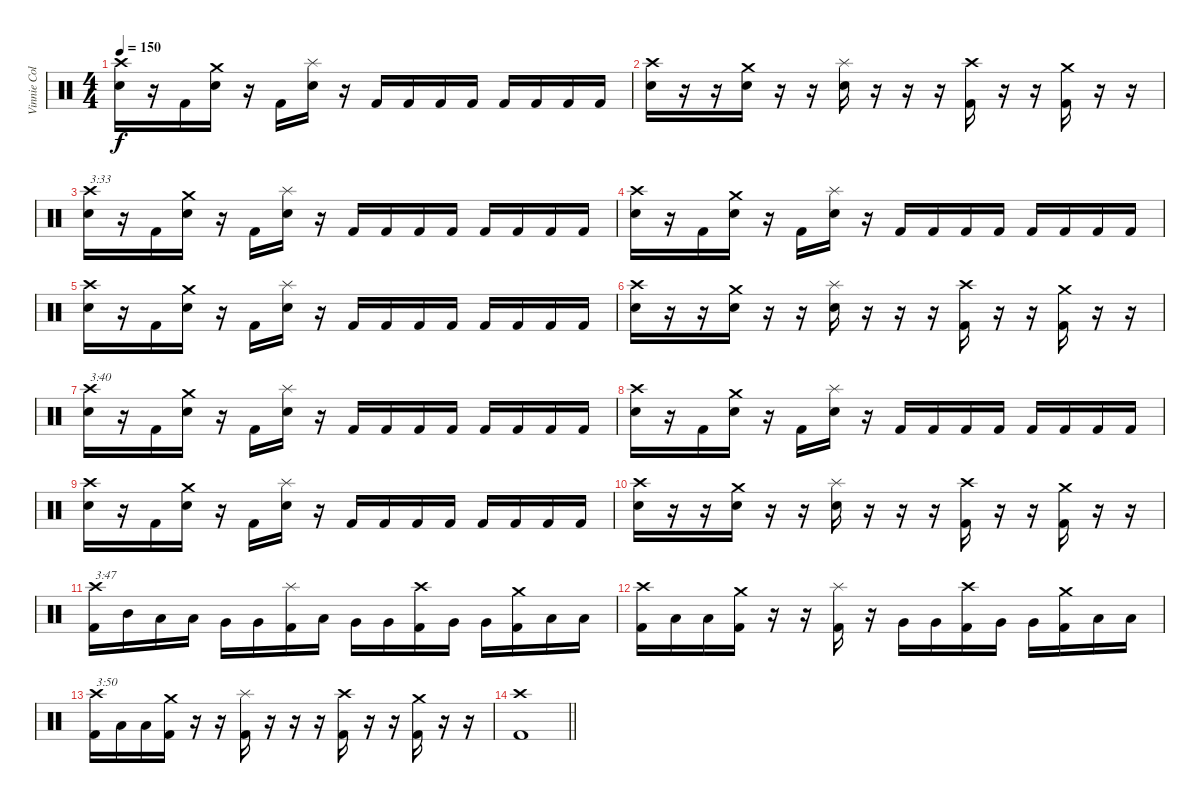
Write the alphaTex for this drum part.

\track ("Vinnie Colaiuta" "Vinnie Col") {instrument percussion}
\staff {score}
\articulation defaults
\ts (4 4)
\tempo 150
\clef neutral
\ks c
("Crash high (hit)" "Snare (hit) 2").16{dy f} r.16 "Kick (hit) 2".16 ("Crash medium (hit)" "Snare (hit) 2").16 r.16 "Kick (hit) 2".16 ("Splash (hit)" "Snare (hit) 2").16 r.16 "Kick (hit) 2".16 "Kick (hit) 2".16 "Kick (hit) 2".16 "Kick (hit) 2".16 "Kick (hit) 2".16 "Kick (hit) 2".16 "Kick (hit) 2".16 "Kick (hit) 2".16 |
("Crash high (hit)" "Snare (hit) 2").16 r.16 r.16 ("Crash medium (hit)" "Snare (hit) 2").16 r.16 r.16 ("Splash (hit)" "Snare (hit) 2").16 r.16 r.16 r.16 ("Crash high (hit)" "Kick (hit) 2").16 r.16 r.16 ("Crash medium (hit)" "Kick (hit) 2").16 r.16 r.16 |
("Crash high (hit)" "Snare (hit) 2").16{txt "3:33"} r.16 "Kick (hit) 2".16 ("Crash medium (hit)" "Snare (hit) 2").16 r.16 "Kick (hit) 2".16 ("Splash (hit)" "Snare (hit) 2").16 r.16 "Kick (hit) 2".16 "Kick (hit) 2".16 "Kick (hit) 2".16 "Kick (hit) 2".16 "Kick (hit) 2".16 "Kick (hit) 2".16 "Kick (hit) 2".16 "Kick (hit) 2".16 |
("Crash high (hit)" "Snare (hit) 2").16 r.16 "Kick (hit) 2".16 ("Crash medium (hit)" "Snare (hit) 2").16 r.16 "Kick (hit) 2".16 ("Splash (hit)" "Snare (hit) 2").16 r.16 "Kick (hit) 2".16 "Kick (hit) 2".16 "Kick (hit) 2".16 "Kick (hit) 2".16 "Kick (hit) 2".16 "Kick (hit) 2".16 "Kick (hit) 2".16 "Kick (hit) 2".16 |
("Crash high (hit)" "Snare (hit) 2").16 r.16 "Kick (hit) 2".16 ("Crash medium (hit)" "Snare (hit) 2").16 r.16 "Kick (hit) 2".16 ("Splash (hit)" "Snare (hit) 2").16 r.16 "Kick (hit) 2".16 "Kick (hit) 2".16 "Kick (hit) 2".16 "Kick (hit) 2".16 "Kick (hit) 2".16 "Kick (hit) 2".16 "Kick (hit) 2".16 "Kick (hit) 2".16 |
("Crash high (hit)" "Snare (hit) 2").16 r.16 r.16 ("Crash medium (hit)" "Snare (hit) 2").16 r.16 r.16 ("Splash (hit)" "Snare (hit) 2").16 r.16 r.16 r.16 ("Crash high (hit)" "Kick (hit) 2").16 r.16 r.16 ("Crash medium (hit)" "Kick (hit) 2").16 r.16 r.16 |
("Crash high (hit)" "Snare (hit) 2").16{txt "3:40"} r.16 "Kick (hit) 2".16 ("Crash medium (hit)" "Snare (hit) 2").16 r.16 "Kick (hit) 2".16 ("Splash (hit)" "Snare (hit) 2").16 r.16 "Kick (hit) 2".16 "Kick (hit) 2".16 "Kick (hit) 2".16 "Kick (hit) 2".16 "Kick (hit) 2".16 "Kick (hit) 2".16 "Kick (hit) 2".16 "Kick (hit) 2".16 |
("Crash high (hit)" "Snare (hit) 2").16 r.16 "Kick (hit) 2".16 ("Crash medium (hit)" "Snare (hit) 2").16 r.16 "Kick (hit) 2".16 ("Splash (hit)" "Snare (hit) 2").16 r.16 "Kick (hit) 2".16 "Kick (hit) 2".16 "Kick (hit) 2".16 "Kick (hit) 2".16 "Kick (hit) 2".16 "Kick (hit) 2".16 "Kick (hit) 2".16 "Kick (hit) 2".16 |
("Crash high (hit)" "Snare (hit) 2").16 r.16 "Kick (hit) 2".16 ("Crash medium (hit)" "Snare (hit) 2").16 r.16 "Kick (hit) 2".16 ("Splash (hit)" "Snare (hit) 2").16 r.16 "Kick (hit) 2".16 "Kick (hit) 2".16 "Kick (hit) 2".16 "Kick (hit) 2".16 "Kick (hit) 2".16 "Kick (hit) 2".16 "Kick (hit) 2".16 "Kick (hit) 2".16 |
("Crash high (hit)" "Snare (hit) 2").16 r.16 r.16 ("Crash medium (hit)" "Snare (hit) 2").16 r.16 r.16 ("Splash (hit)" "Snare (hit) 2").16 r.16 r.16 r.16 ("Crash high (hit)" "Kick (hit) 2").16 r.16 r.16 ("Crash medium (hit)" "Kick (hit) 2").16 r.16 r.16 |
("Crash high (hit)" "Kick (hit) 2").16{txt "3:47"} "Mid Tom (hit)".16 "Low Tom (hit)".16 "Low Tom (hit)".16 "Very Low Tom (hit)".16 "Very Low Tom (hit)".16 ("Splash (hit)" "Kick (hit) 2").16 "Low Tom (hit)".16 "Very Low Tom (hit)".16 "Very Low Tom (hit)".16 ("Crash high (hit)" "Kick (hit) 2").16 "Very Low Tom (hit)".16 "Very Low Tom (hit)".16 ("Crash medium (hit)" "Kick (hit) 2").16 "Low Floor Tom (hit)".16 "Low Floor Tom (hit)".16 |
("Crash high (hit)" "Kick (hit) 2").16 "Low Tom (hit)".16 "Low Tom (hit)".16 ("Crash medium (hit)" "Kick (hit) 2").16 r.16 r.16 ("Splash (hit)" "Kick (hit) 2").16 r.16 "Very Low Tom (hit)".16 "Very Low Tom (hit)".16 ("Crash high (hit)" "Kick (hit) 2").16 "Very Low Tom (hit)".16 "Very Low Tom (hit)".16 ("Crash medium (hit)" "Kick (hit) 2").16 "Low Floor Tom (hit)".16 "Low Floor Tom (hit)".16 |
("Crash high (hit)" "Kick (hit) 2").16{txt "3:50"} "Low Tom (hit)".16 "Low Tom (hit)".16 ("Crash medium (hit)" "Kick (hit) 2").16 r.16 r.16 ("Splash (hit)" "Kick (hit) 2").16 r.16 r.16 r.16 ("Crash high (hit)" "Kick (hit) 2").16 r.16 r.16 ("Crash medium (hit)" "Kick (hit) 2").16 r.16 r.16 |
\barLineRight lightlight
("Crash high (hit)" "Kick (hit) 2").1
